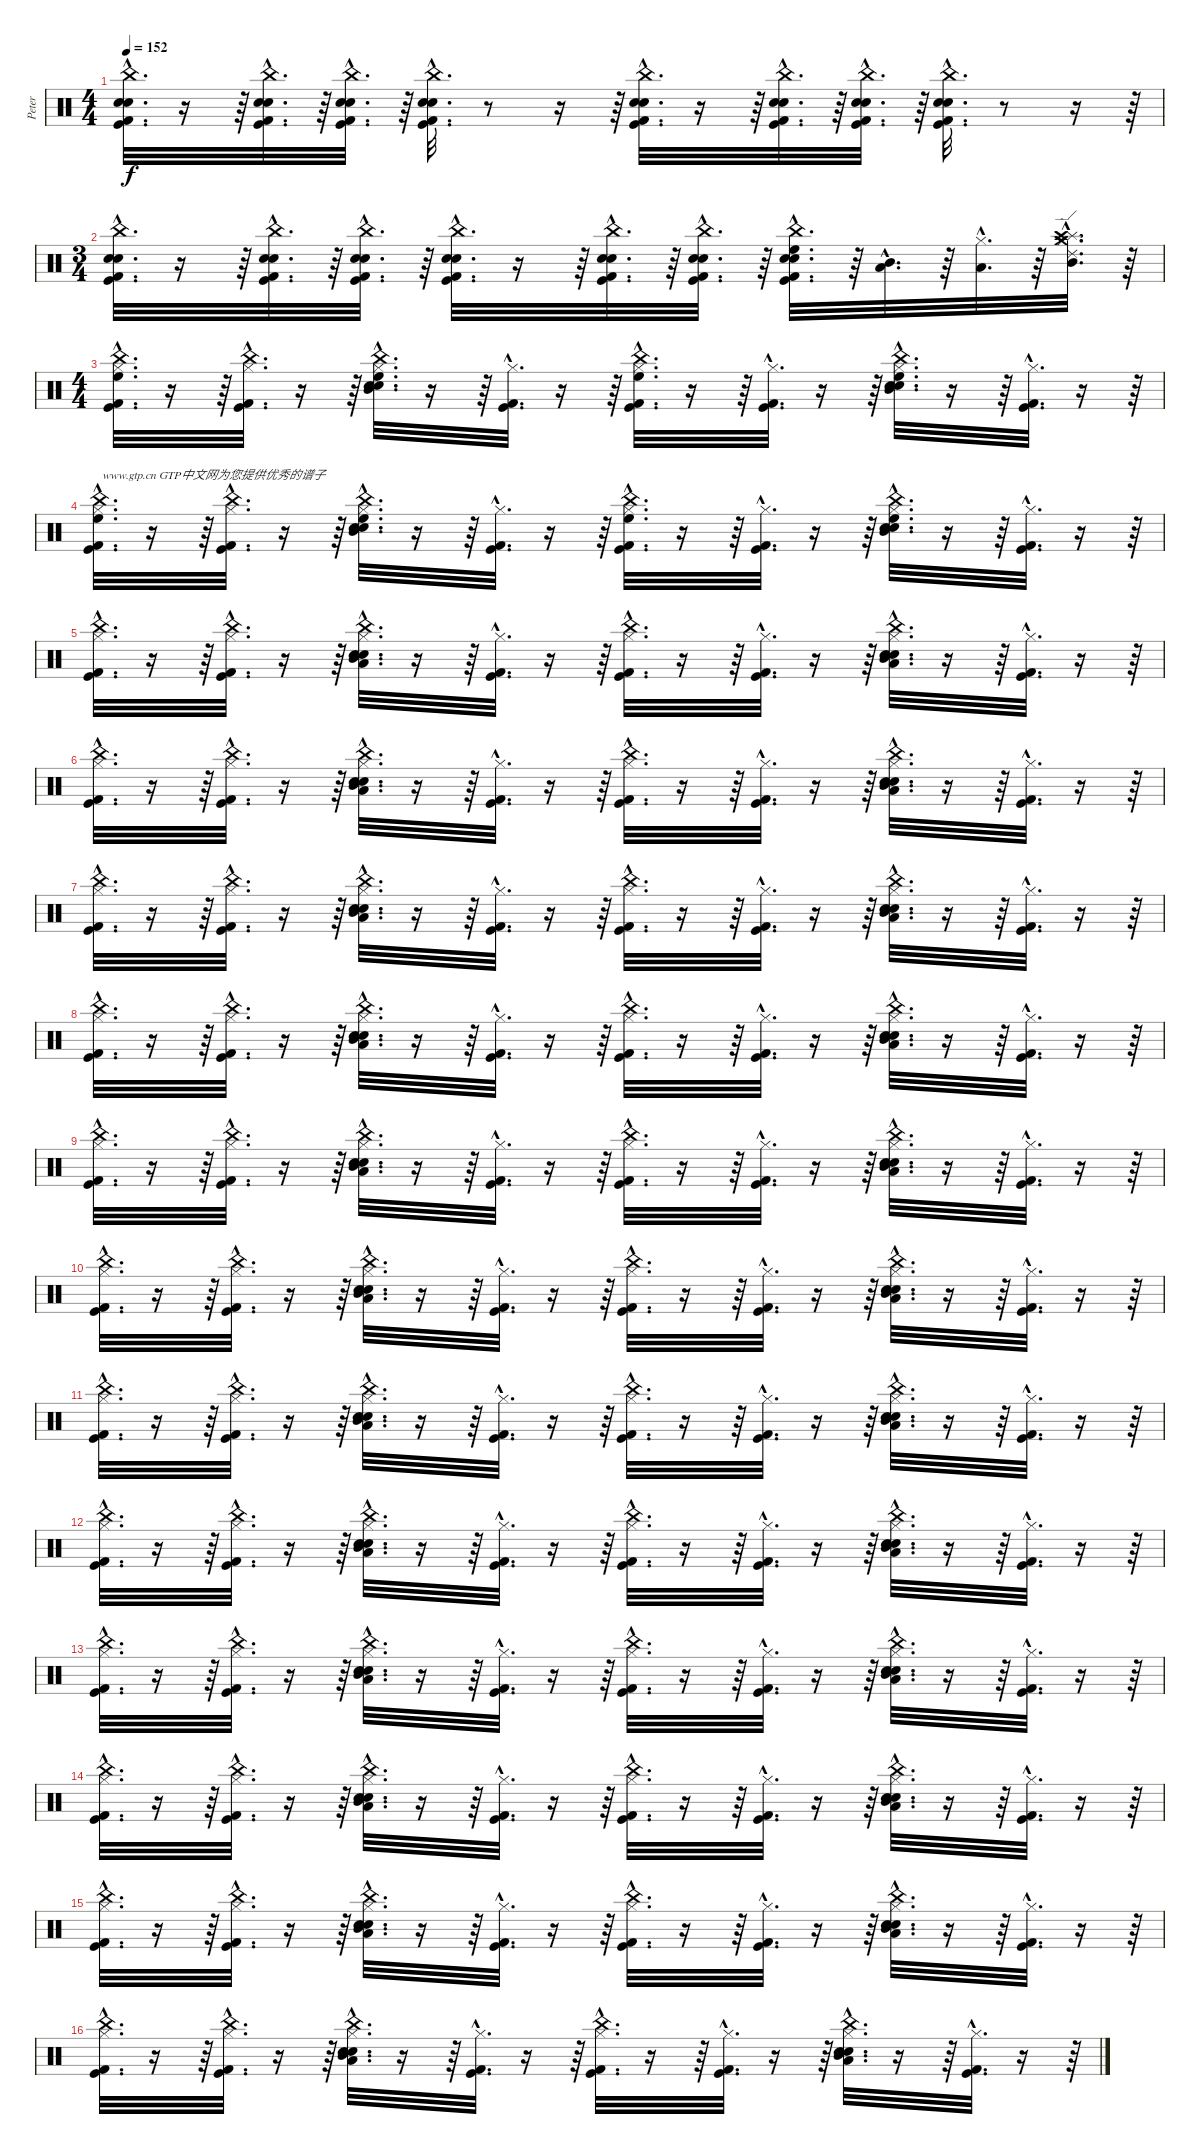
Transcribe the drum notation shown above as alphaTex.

\track ("Peter" "Peter") {instrument percussion}
\staff {score}
\articulation defaults
\ts (4 4)
\tempo 152
\clef neutral
\ks c
("Electric Snare (hit)"{hac} "Snare (hit) 2"{hac} "Kick (hit) 2"{hac} "Kick (hit)"{hac} "China (hit)"{hac}).32{d dy f} r.16 r.64 ("Electric Snare (hit)"{hac} "Snare (hit) 2"{hac} "Kick (hit) 2"{hac} "Kick (hit)"{hac} "China (hit)"{hac}).32{d} r.64 ("Electric Snare (hit)"{hac} "Snare (hit) 2"{hac} "Kick (hit) 2"{hac} "Kick (hit)"{hac} "China (hit)"{hac}).32{d} r.64 ("Electric Snare (hit)"{hac} "Snare (hit) 2"{hac} "Kick (hit) 2"{hac} "Kick (hit)"{hac} "China (hit)"{hac}).32{d} r.8 r.16 r.64 ("Electric Snare (hit)"{hac} "Snare (hit) 2"{hac} "Kick (hit) 2"{hac} "Kick (hit)"{hac} "China (hit)"{hac}).32{d} r.16 r.64 ("Electric Snare (hit)"{hac} "Snare (hit) 2"{hac} "Kick (hit) 2"{hac} "Kick (hit)"{hac} "China (hit)"{hac}).32{d} r.64 ("Electric Snare (hit)"{hac} "Snare (hit) 2"{hac} "Kick (hit) 2"{hac} "Kick (hit)"{hac} "China (hit)"{hac}).32{d} r.64 ("Electric Snare (hit)"{hac} "Snare (hit) 2"{hac} "Kick (hit) 2"{hac} "Kick (hit)"{hac} "China (hit)"{hac}).32{d} r.8 r.16 r.64 |
\ts (3 4)
("Electric Snare (hit)"{hac} "Snare (hit) 2"{hac} "Kick (hit) 2"{hac} "Kick (hit)"{hac} "China (hit)"{hac}).32{d} r.16 r.64 ("Electric Snare (hit)"{hac} "Snare (hit) 2"{hac} "Kick (hit) 2"{hac} "Kick (hit)"{hac} "China (hit)"{hac}).32{d} r.64 ("Electric Snare (hit)"{hac} "Snare (hit) 2"{hac} "Kick (hit) 2"{hac} "Kick (hit)"{hac} "China (hit)"{hac}).32{d} r.64 ("Electric Snare (hit)"{hac} "Snare (hit) 2"{hac} "Kick (hit) 2"{hac} "Kick (hit)"{hac} "China (hit)"{hac}).32{d} r.16 r.64 ("Electric Snare (hit)"{hac} "Snare (hit) 2"{hac} "Kick (hit) 2"{hac} "Kick (hit)"{hac} "China (hit)"{hac}).32{d} r.64 ("Electric Snare (hit)"{hac} "Snare (hit) 2"{hac} "Kick (hit) 2"{hac} "Kick (hit)"{hac} "China (hit)"{hac}).32{d} r.64 ("Electric Snare (hit)"{hac} "Snare (hit) 2"{hac} "Kick (hit) 2"{hac} "Kick (hit)"{hac} "China (hit)"{hac} "High Floor Tom (hit)"{hac}).32{d} r.64 ("Mid Tom (hit)"{hac} "Low Tom (hit)"{hac}).32{d} r.64 ("Low Tom (hit)"{hac} "Hi-Hat (closed)"{hac}).32{d} r.64 ("Hi-Hat (closed)"{hac} "Mid Tom (hit)"{hac} "Ride (edge) 2"{hac} "Crash medium (hit)"{hac} "Splash (hit)"{hac} "Crash high (hit)"{hac}).32{d} r.64 |
\ts (4 4)
("China (hit)"{hac} "Kick (hit) 2"{hac} "Kick (hit)"{hac} "Hi-Hat (closed)"{hac} "High Floor Tom (hit)"{hac}).32{d} r.16 r.64 ("Kick (hit)"{hac} "Kick (hit) 2"{hac} "China (hit)"{hac} "Hi-Hat (closed)"{hac}).32{d} r.16 r.64 ("China (hit)"{hac} "Electric Snare (hit)"{hac} "Snare (hit) 2"{hac} "Hi-Hat (closed)"{hac} "Mid Tom (hit)"{hac} "High Floor Tom (hit)"{hac}).32{d} r.16 r.64 ("Kick (hit) 2"{hac} "Kick (hit)"{hac} "Hi-Hat (closed)"{hac}).32{d} r.16 r.64 ("China (hit)"{hac} "Kick (hit)"{hac} "Kick (hit) 2"{hac} "Hi-Hat (closed)"{hac} "High Floor Tom (hit)"{hac}).32{d} r.16 r.64 ("Kick (hit) 2"{hac} "Kick (hit)"{hac} "Hi-Hat (closed)"{hac}).32{d} r.16 r.64 ("China (hit)"{hac} "Electric Snare (hit)"{hac} "Snare (hit) 2"{hac} "Hi-Hat (closed)"{hac} "Mid Tom (hit)"{hac} "High Floor Tom (hit)"{hac}).32{d} r.16 r.64 ("Kick (hit) 2"{hac} "Kick (hit)"{hac} "Hi-Hat (closed)"{hac}).32{d} r.16 r.64 |
("China (hit)"{hac} "Kick (hit) 2"{hac} "Kick (hit)"{hac} "Hi-Hat (closed)"{hac} "High Floor Tom (hit)"{hac}).32{d txt "www.gtp.cn GTP中文网为您提供优秀的谱子"} r.16 r.64 ("Kick (hit)"{hac} "Kick (hit) 2"{hac} "China (hit)"{hac} "Hi-Hat (closed)"{hac}).32{d} r.16 r.64 ("China (hit)"{hac} "Electric Snare (hit)"{hac} "Snare (hit) 2"{hac} "Hi-Hat (closed)"{hac} "Mid Tom (hit)"{hac} "High Floor Tom (hit)"{hac}).32{d} r.16 r.64 ("Kick (hit) 2"{hac} "Kick (hit)"{hac} "Hi-Hat (closed)"{hac}).32{d} r.16 r.64 ("China (hit)"{hac} "Kick (hit)"{hac} "Kick (hit) 2"{hac} "Hi-Hat (closed)"{hac} "High Floor Tom (hit)"{hac}).32{d} r.16 r.64 ("Kick (hit) 2"{hac} "Kick (hit)"{hac} "Hi-Hat (closed)"{hac}).32{d} r.16 r.64 ("China (hit)"{hac} "Electric Snare (hit)"{hac} "Snare (hit) 2"{hac} "Hi-Hat (closed)"{hac} "Mid Tom (hit)"{hac} "High Floor Tom (hit)"{hac}).32{d} r.16 r.64 ("Kick (hit) 2"{hac} "Kick (hit)"{hac} "Hi-Hat (closed)"{hac}).32{d} r.16 r.64 |
("China (hit)"{hac} "Kick (hit) 2"{hac} "Kick (hit)"{hac} "Hi-Hat (closed)"{hac}).32{d} r.16 r.64 ("Kick (hit)"{hac} "Kick (hit) 2"{hac} "China (hit)"{hac} "Hi-Hat (closed)"{hac}).32{d} r.16 r.64 ("China (hit)"{hac} "Electric Snare (hit)"{hac} "Snare (hit) 2"{hac} "Hi-Hat (closed)"{hac} "Mid Tom (hit)"{hac} "Low Tom (hit)"{hac}).32{d} r.16 r.64 ("Kick (hit) 2"{hac} "Kick (hit)"{hac} "Hi-Hat (closed)"{hac}).32{d} r.16 r.64 ("China (hit)"{hac} "Kick (hit)"{hac} "Kick (hit) 2"{hac} "Hi-Hat (closed)"{hac}).32{d} r.16 r.64 ("Kick (hit) 2"{hac} "Kick (hit)"{hac} "Hi-Hat (closed)"{hac}).32{d} r.16 r.64 ("China (hit)"{hac} "Electric Snare (hit)"{hac} "Snare (hit) 2"{hac} "Hi-Hat (closed)"{hac} "Mid Tom (hit)"{hac} "Low Tom (hit)"{hac}).32{d} r.16 r.64 ("Kick (hit) 2"{hac} "Kick (hit)"{hac} "Hi-Hat (closed)"{hac}).32{d} r.16 r.64 |
("China (hit)"{hac} "Kick (hit) 2"{hac} "Kick (hit)"{hac} "Hi-Hat (closed)"{hac}).32{d} r.16 r.64 ("Kick (hit)"{hac} "Kick (hit) 2"{hac} "China (hit)"{hac} "Hi-Hat (closed)"{hac}).32{d} r.16 r.64 ("China (hit)"{hac} "Electric Snare (hit)"{hac} "Snare (hit) 2"{hac} "Hi-Hat (closed)"{hac} "Mid Tom (hit)"{hac} "Low Tom (hit)"{hac}).32{d} r.16 r.64 ("Kick (hit) 2"{hac} "Kick (hit)"{hac} "Hi-Hat (closed)"{hac}).32{d} r.16 r.64 ("China (hit)"{hac} "Kick (hit)"{hac} "Kick (hit) 2"{hac} "Hi-Hat (closed)"{hac}).32{d} r.16 r.64 ("Kick (hit) 2"{hac} "Kick (hit)"{hac} "Hi-Hat (closed)"{hac}).32{d} r.16 r.64 ("China (hit)"{hac} "Electric Snare (hit)"{hac} "Snare (hit) 2"{hac} "Hi-Hat (closed)"{hac} "Mid Tom (hit)"{hac} "Low Tom (hit)"{hac}).32{d} r.16 r.64 ("Kick (hit) 2"{hac} "Kick (hit)"{hac} "Hi-Hat (closed)"{hac}).32{d} r.16 r.64 |
("China (hit)"{hac} "Kick (hit) 2"{hac} "Kick (hit)"{hac} "Hi-Hat (closed)"{hac}).32{d} r.16 r.64 ("Kick (hit)"{hac} "Kick (hit) 2"{hac} "China (hit)"{hac} "Hi-Hat (closed)"{hac}).32{d} r.16 r.64 ("China (hit)"{hac} "Electric Snare (hit)"{hac} "Snare (hit) 2"{hac} "Hi-Hat (closed)"{hac} "Mid Tom (hit)"{hac} "Low Tom (hit)"{hac}).32{d} r.16 r.64 ("Kick (hit) 2"{hac} "Kick (hit)"{hac} "Hi-Hat (closed)"{hac}).32{d} r.16 r.64 ("China (hit)"{hac} "Kick (hit)"{hac} "Kick (hit) 2"{hac} "Hi-Hat (closed)"{hac}).32{d} r.16 r.64 ("Kick (hit) 2"{hac} "Kick (hit)"{hac} "Hi-Hat (closed)"{hac}).32{d} r.16 r.64 ("China (hit)"{hac} "Electric Snare (hit)"{hac} "Snare (hit) 2"{hac} "Hi-Hat (closed)"{hac} "Mid Tom (hit)"{hac} "Low Tom (hit)"{hac}).32{d} r.16 r.64 ("Kick (hit) 2"{hac} "Kick (hit)"{hac} "Hi-Hat (closed)"{hac}).32{d} r.16 r.64 |
("China (hit)"{hac} "Kick (hit) 2"{hac} "Kick (hit)"{hac} "Hi-Hat (closed)"{hac}).32{d} r.16 r.64 ("Kick (hit)"{hac} "Kick (hit) 2"{hac} "China (hit)"{hac} "Hi-Hat (closed)"{hac}).32{d} r.16 r.64 ("China (hit)"{hac} "Electric Snare (hit)"{hac} "Snare (hit) 2"{hac} "Hi-Hat (closed)"{hac} "Mid Tom (hit)"{hac} "Low Tom (hit)"{hac}).32{d} r.16 r.64 ("Kick (hit) 2"{hac} "Kick (hit)"{hac} "Hi-Hat (closed)"{hac}).32{d} r.16 r.64 ("China (hit)"{hac} "Kick (hit)"{hac} "Kick (hit) 2"{hac} "Hi-Hat (closed)"{hac}).32{d} r.16 r.64 ("Kick (hit) 2"{hac} "Kick (hit)"{hac} "Hi-Hat (closed)"{hac}).32{d} r.16 r.64 ("China (hit)"{hac} "Electric Snare (hit)"{hac} "Snare (hit) 2"{hac} "Hi-Hat (closed)"{hac} "Mid Tom (hit)"{hac} "Low Tom (hit)"{hac}).32{d} r.16 r.64 ("Kick (hit) 2"{hac} "Kick (hit)"{hac} "Hi-Hat (closed)"{hac}).32{d} r.16 r.64 |
("China (hit)"{hac} "Kick (hit) 2"{hac} "Kick (hit)"{hac} "Hi-Hat (closed)"{hac}).32{d} r.16 r.64 ("Kick (hit)"{hac} "Kick (hit) 2"{hac} "China (hit)"{hac} "Hi-Hat (closed)"{hac}).32{d} r.16 r.64 ("China (hit)"{hac} "Electric Snare (hit)"{hac} "Snare (hit) 2"{hac} "Hi-Hat (closed)"{hac} "Mid Tom (hit)"{hac} "Low Tom (hit)"{hac}).32{d} r.16 r.64 ("Kick (hit) 2"{hac} "Kick (hit)"{hac} "Hi-Hat (closed)"{hac}).32{d} r.16 r.64 ("China (hit)"{hac} "Kick (hit)"{hac} "Kick (hit) 2"{hac} "Hi-Hat (closed)"{hac}).32{d} r.16 r.64 ("Kick (hit) 2"{hac} "Kick (hit)"{hac} "Hi-Hat (closed)"{hac}).32{d} r.16 r.64 ("China (hit)"{hac} "Electric Snare (hit)"{hac} "Snare (hit) 2"{hac} "Hi-Hat (closed)"{hac} "Mid Tom (hit)"{hac} "Low Tom (hit)"{hac}).32{d} r.16 r.64 ("Kick (hit) 2"{hac} "Kick (hit)"{hac} "Hi-Hat (closed)"{hac}).32{d} r.16 r.64 |
("China (hit)"{hac} "Kick (hit) 2"{hac} "Kick (hit)"{hac} "Hi-Hat (closed)"{hac}).32{d} r.16 r.64 ("Kick (hit)"{hac} "Kick (hit) 2"{hac} "China (hit)"{hac} "Hi-Hat (closed)"{hac}).32{d} r.16 r.64 ("China (hit)"{hac} "Electric Snare (hit)"{hac} "Snare (hit) 2"{hac} "Hi-Hat (closed)"{hac} "Mid Tom (hit)"{hac} "Low Tom (hit)"{hac}).32{d} r.16 r.64 ("Kick (hit) 2"{hac} "Kick (hit)"{hac} "Hi-Hat (closed)"{hac}).32{d} r.16 r.64 ("China (hit)"{hac} "Kick (hit)"{hac} "Kick (hit) 2"{hac} "Hi-Hat (closed)"{hac}).32{d} r.16 r.64 ("Kick (hit) 2"{hac} "Kick (hit)"{hac} "Hi-Hat (closed)"{hac}).32{d} r.16 r.64 ("China (hit)"{hac} "Electric Snare (hit)"{hac} "Snare (hit) 2"{hac} "Hi-Hat (closed)"{hac} "Mid Tom (hit)"{hac} "Low Tom (hit)"{hac}).32{d} r.16 r.64 ("Kick (hit) 2"{hac} "Kick (hit)"{hac} "Hi-Hat (closed)"{hac}).32{d} r.16 r.64 |
("China (hit)"{hac} "Kick (hit) 2"{hac} "Kick (hit)"{hac} "Hi-Hat (closed)"{hac}).32{d} r.16 r.64 ("Kick (hit) 2"{hac} "China (hit)"{hac} "Hi-Hat (closed)"{hac} "Kick (hit)"{hac}).32{d} r.16 r.64 ("China (hit)"{hac} "Electric Snare (hit)"{hac} "Snare (hit) 2"{hac} "Hi-Hat (closed)"{hac} "Mid Tom (hit)"{hac} "Low Tom (hit)"{hac}).32{d} r.16 r.64 ("Kick (hit) 2"{hac} "Kick (hit)"{hac} "Hi-Hat (closed)"{hac}).32{d} r.16 r.64 ("China (hit)"{hac} "Kick (hit)"{hac} "Kick (hit) 2"{hac} "Hi-Hat (closed)"{hac}).32{d} r.16 r.64 ("Kick (hit) 2"{hac} "Kick (hit)"{hac} "Hi-Hat (closed)"{hac}).32{d} r.16 r.64 ("China (hit)"{hac} "Electric Snare (hit)"{hac} "Snare (hit) 2"{hac} "Hi-Hat (closed)"{hac} "Mid Tom (hit)"{hac} "Low Tom (hit)"{hac}).32{d} r.16 r.64 ("Kick (hit) 2"{hac} "Kick (hit)"{hac} "Hi-Hat (closed)"{hac}).32{d} r.16 r.64 |
("China (hit)"{hac} "Kick (hit) 2"{hac} "Kick (hit)"{hac} "Hi-Hat (closed)"{hac}).32{d} r.16 r.64 ("Kick (hit)"{hac} "Kick (hit) 2"{hac} "China (hit)"{hac} "Hi-Hat (closed)"{hac}).32{d} r.16 r.64 ("China (hit)"{hac} "Electric Snare (hit)"{hac} "Snare (hit) 2"{hac} "Hi-Hat (closed)"{hac} "Mid Tom (hit)"{hac} "Low Tom (hit)"{hac}).32{d} r.16 r.64 ("Kick (hit) 2"{hac} "Kick (hit)"{hac} "Hi-Hat (closed)"{hac}).32{d} r.16 r.64 ("China (hit)"{hac} "Kick (hit)"{hac} "Kick (hit) 2"{hac} "Hi-Hat (closed)"{hac}).32{d} r.16 r.64 ("Kick (hit) 2"{hac} "Kick (hit)"{hac} "Hi-Hat (closed)"{hac}).32{d} r.16 r.64 ("China (hit)"{hac} "Electric Snare (hit)"{hac} "Snare (hit) 2"{hac} "Hi-Hat (closed)"{hac} "Mid Tom (hit)"{hac} "Low Tom (hit)"{hac}).32{d} r.16 r.64 ("Kick (hit) 2"{hac} "Kick (hit)"{hac} "Hi-Hat (closed)"{hac}).32{d} r.16 r.64 |
("China (hit)"{hac} "Kick (hit) 2"{hac} "Kick (hit)"{hac} "Hi-Hat (closed)"{hac}).32{d} r.16 r.64 ("Kick (hit)"{hac} "Kick (hit) 2"{hac} "China (hit)"{hac} "Hi-Hat (closed)"{hac}).32{d} r.16 r.64 ("China (hit)"{hac} "Electric Snare (hit)"{hac} "Snare (hit) 2"{hac} "Hi-Hat (closed)"{hac} "Mid Tom (hit)"{hac} "Low Tom (hit)"{hac}).32{d} r.16 r.64 ("Kick (hit) 2"{hac} "Kick (hit)"{hac} "Hi-Hat (closed)"{hac}).32{d} r.16 r.64 ("China (hit)"{hac} "Kick (hit)"{hac} "Kick (hit) 2"{hac} "Hi-Hat (closed)"{hac}).32{d} r.16 r.64 ("Kick (hit) 2"{hac} "Kick (hit)"{hac} "Hi-Hat (closed)"{hac}).32{d} r.16 r.64 ("China (hit)"{hac} "Electric Snare (hit)"{hac} "Snare (hit) 2"{hac} "Hi-Hat (closed)"{hac} "Mid Tom (hit)"{hac} "Low Tom (hit)"{hac}).32{d} r.16 r.64 ("Kick (hit) 2"{hac} "Kick (hit)"{hac} "Hi-Hat (closed)"{hac}).32{d} r.16 r.64 |
("China (hit)"{hac} "Kick (hit) 2"{hac} "Kick (hit)"{hac} "Hi-Hat (closed)"{hac}).32{d} r.16 r.64 ("Kick (hit)"{hac} "Kick (hit) 2"{hac} "China (hit)"{hac} "Hi-Hat (closed)"{hac}).32{d} r.16 r.64 ("China (hit)"{hac} "Electric Snare (hit)"{hac} "Snare (hit) 2"{hac} "Hi-Hat (closed)"{hac} "Mid Tom (hit)"{hac} "Low Tom (hit)"{hac}).32{d} r.16 r.64 ("Kick (hit) 2"{hac} "Kick (hit)"{hac} "Hi-Hat (closed)"{hac}).32{d} r.16 r.64 ("China (hit)"{hac} "Kick (hit)"{hac} "Kick (hit) 2"{hac} "Hi-Hat (closed)"{hac}).32{d} r.16 r.64 ("Kick (hit) 2"{hac} "Kick (hit)"{hac} "Hi-Hat (closed)"{hac}).32{d} r.16 r.64 ("China (hit)"{hac} "Electric Snare (hit)"{hac} "Snare (hit) 2"{hac} "Hi-Hat (closed)"{hac} "Mid Tom (hit)"{hac} "Low Tom (hit)"{hac}).32{d} r.16 r.64 ("Kick (hit) 2"{hac} "Kick (hit)"{hac} "Hi-Hat (closed)"{hac}).32{d} r.16 r.64 |
("China (hit)"{hac} "Kick (hit) 2"{hac} "Kick (hit)"{hac} "Hi-Hat (closed)"{hac}).32{d} r.16 r.64 ("Kick (hit)"{hac} "Kick (hit) 2"{hac} "China (hit)"{hac} "Hi-Hat (closed)"{hac}).32{d} r.16 r.64 ("China (hit)"{hac} "Electric Snare (hit)"{hac} "Snare (hit) 2"{hac} "Hi-Hat (closed)"{hac} "Mid Tom (hit)"{hac} "Low Tom (hit)"{hac}).32{d} r.16 r.64 ("Kick (hit) 2"{hac} "Kick (hit)"{hac} "Hi-Hat (closed)"{hac}).32{d} r.16 r.64 ("China (hit)"{hac} "Kick (hit)"{hac} "Kick (hit) 2"{hac} "Hi-Hat (closed)"{hac}).32{d} r.16 r.64 ("Kick (hit) 2"{hac} "Kick (hit)"{hac} "Hi-Hat (closed)"{hac}).32{d} r.16 r.64 ("China (hit)"{hac} "Electric Snare (hit)"{hac} "Snare (hit) 2"{hac} "Hi-Hat (closed)"{hac} "Mid Tom (hit)"{hac} "Low Tom (hit)"{hac}).32{d} r.16 r.64 ("Kick (hit) 2"{hac} "Kick (hit)"{hac} "Hi-Hat (closed)"{hac}).32{d} r.16 r.64 |
("China (hit)"{hac} "Kick (hit) 2"{hac} "Kick (hit)"{hac} "Hi-Hat (closed)"{hac}).32{d} r.16 r.64 ("Kick (hit)"{hac} "Kick (hit) 2"{hac} "China (hit)"{hac} "Hi-Hat (closed)"{hac}).32{d} r.16 r.64 ("China (hit)"{hac} "Electric Snare (hit)"{hac} "Snare (hit) 2"{hac} "Hi-Hat (closed)"{hac} "Mid Tom (hit)"{hac} "Low Tom (hit)"{hac}).32{d} r.16 r.64 ("Kick (hit) 2"{hac} "Kick (hit)"{hac} "Hi-Hat (closed)"{hac}).32{d} r.16 r.64 ("China (hit)"{hac} "Kick (hit)"{hac} "Kick (hit) 2"{hac} "Hi-Hat (closed)"{hac}).32{d} r.16 r.64 ("Kick (hit) 2"{hac} "Kick (hit)"{hac} "Hi-Hat (closed)"{hac}).32{d} r.16 r.64 ("China (hit)"{hac} "Electric Snare (hit)"{hac} "Snare (hit) 2"{hac} "Hi-Hat (closed)"{hac} "Mid Tom (hit)"{hac} "Low Tom (hit)"{hac}).32{d} r.16 r.64 ("Kick (hit) 2"{hac} "Kick (hit)"{hac} "Hi-Hat (closed)"{hac}).32{d} r.16 r.64
